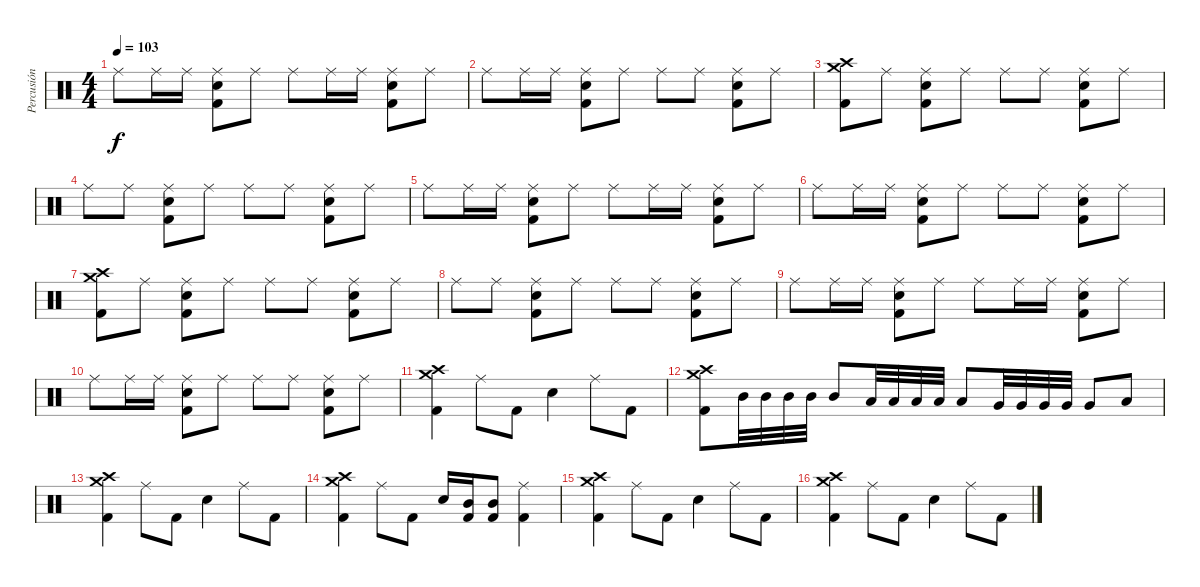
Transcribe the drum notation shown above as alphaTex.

\track ("Percusión" "Percusión") {instrument percussion}
\staff {score}
\articulation defaults
\ts (4 4)
\tempo 103
\clef neutral
\ks c "Ride (middle)".8{dy f} "Ride (middle)".16 "Ride (middle)".16
("Ride (middle)" "Snare (hit) 2" "Kick (hit) 2").8 "Ride (middle)".8 "Ride (middle)".8 "Ride (middle)".16 "Ride (middle)".16 ("Ride (middle)" "Snare (hit) 2" "Kick (hit) 2").8 "Ride (middle)".8 |
"Ride (middle)".8 "Ride (middle)".16 "Ride (middle)".16 ("Ride (middle)" "Snare (hit) 2" "Kick (hit) 2").8 "Ride (middle)".8 "Ride (middle)".8 "Ride (middle)".8 ("Ride (middle)" "Snare (hit) 2" "Kick (hit) 2").8 "Ride (middle)".8 |
("Crash medium (hit)" "Crash high (hit)" "Kick (hit) 2").8 "Ride (middle)".8 ("Ride (middle)" "Snare (hit) 2" "Kick (hit) 2").8 "Ride (middle)".8 "Ride (middle)".8 "Ride (middle)".8 ("Ride (middle)" "Snare (hit) 2" "Kick (hit) 2").8 "Ride (middle)".8 |
"Ride (middle)".8 "Ride (middle)".8 ("Ride (middle)" "Snare (hit) 2" "Kick (hit) 2").8 "Ride (middle)".8 "Ride (middle)".8 "Ride (middle)".8 ("Ride (middle)" "Snare (hit) 2" "Kick (hit) 2").8 "Ride (middle)".8 |
"Ride (middle)".8 "Ride (middle)".16 "Ride (middle)".16 ("Ride (middle)" "Snare (hit) 2" "Kick (hit) 2").8 "Ride (middle)".8 "Ride (middle)".8 "Ride (middle)".16 "Ride (middle)".16 ("Ride (middle)" "Snare (hit) 2" "Kick (hit) 2").8 "Ride (middle)".8 |
"Ride (middle)".8 "Ride (middle)".16 "Ride (middle)".16 ("Ride (middle)" "Snare (hit) 2" "Kick (hit) 2").8 "Ride (middle)".8 "Ride (middle)".8 "Ride (middle)".8 ("Ride (middle)" "Snare (hit) 2" "Kick (hit) 2").8 "Ride (middle)".8 |
("Crash medium (hit)" "Crash high (hit)" "Kick (hit) 2").8 "Ride (middle)".8 ("Ride (middle)" "Snare (hit) 2" "Kick (hit) 2").8 "Ride (middle)".8 "Ride (middle)".8 "Ride (middle)".8 ("Ride (middle)" "Snare (hit) 2" "Kick (hit) 2").8 "Ride (middle)".8 |
"Ride (middle)".8 "Ride (middle)".8 ("Ride (middle)" "Snare (hit) 2" "Kick (hit) 2").8 "Ride (middle)".8 "Ride (middle)".8 "Ride (middle)".8 ("Ride (middle)" "Snare (hit) 2" "Kick (hit) 2").8 "Ride (middle)".8 |
"Ride (middle)".8 "Ride (middle)".16 "Ride (middle)".16 ("Ride (middle)" "Snare (hit) 2" "Kick (hit) 2").8 "Ride (middle)".8 "Ride (middle)".8 "Ride (middle)".16 "Ride (middle)".16 ("Ride (middle)" "Snare (hit) 2" "Kick (hit) 2").8 "Ride (middle)".8 |
"Ride (middle)".8 "Ride (middle)".16 "Ride (middle)".16 ("Ride (middle)" "Snare (hit) 2" "Kick (hit) 2").8 "Ride (middle)".8 "Ride (middle)".8 "Ride (middle)".8 ("Ride (middle)" "Snare (hit) 2" "Kick (hit) 2").8 "Ride (middle)".8 |
("Crash medium (hit)" "Crash high (hit)" "Kick (hit) 2").4 "Ride (middle)".8 "Kick (hit) 2".8 "Snare (hit) 2".4 "Ride (middle)".8 "Kick (hit) 2".8 |
("Crash medium (hit)" "Crash high (hit)" "Kick (hit) 2").8 "Mid Tom (hit)".32 "Mid Tom (hit)".32 "Mid Tom (hit)".32 "Mid Tom (hit)".32 "Mid Tom (hit)".8 "Low Tom (hit)".32 "Low Tom (hit)".32 "Low Tom (hit)".32 "Low Tom (hit)".32 "Low Tom (hit)".8 "Very Low Tom (hit)".32 "Very Low Tom (hit)".32 "Very Low Tom (hit)".32 "Very Low Tom (hit)".32 "Very Low Tom (hit)".8 "Low Floor Tom (hit)".8 |
("Crash medium (hit)" "Crash high (hit)" "Kick (hit) 2").4 "Ride (middle)".8 "Kick (hit) 2".8 "Snare (hit) 2".4 "Ride (middle)".8 "Kick (hit) 2".8 |
("Crash medium (hit)" "Crash high (hit)" "Kick (hit) 2").4 "Ride (middle)".8 "Kick (hit) 2".8 "Snare (hit) 2".16 ("Mid Tom (hit)" "Kick (hit) 2").16 ("Mid Tom (hit)" "Kick (hit) 2").8 ("Ride (middle)" "Kick (hit) 2").4 |
("Crash medium (hit)" "Crash high (hit)" "Kick (hit) 2").4 "Ride (middle)".8 "Kick (hit) 2".8 "Snare (hit) 2".4 "Ride (middle)".8 "Kick (hit) 2".8 |
("Crash medium (hit)" "Crash high (hit)" "Kick (hit) 2").4 "Ride (middle)".8 "Kick (hit) 2".8 "Snare (hit) 2".4 "Ride (middle)".8 "Kick (hit) 2".8
